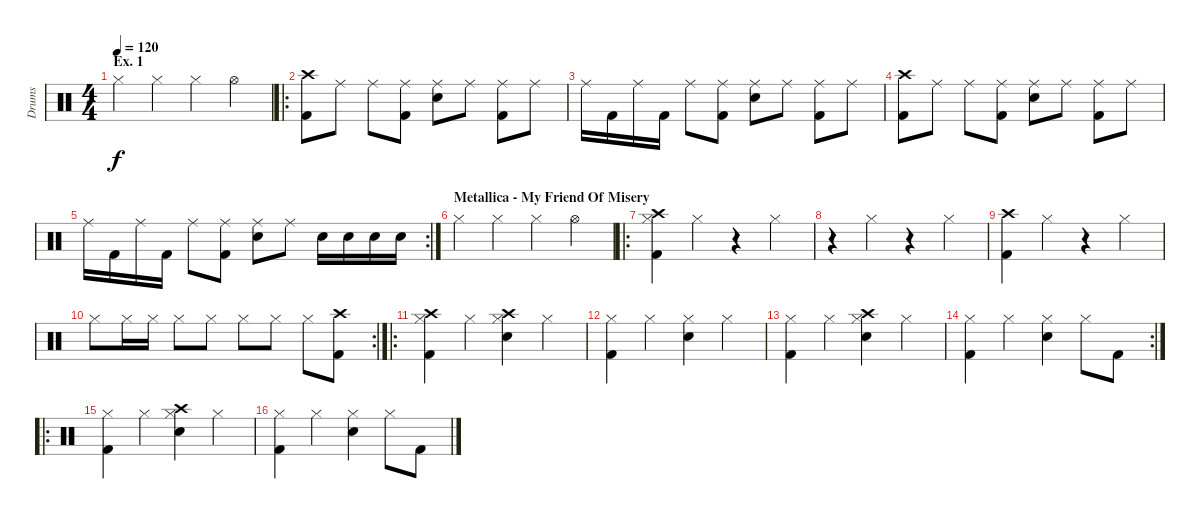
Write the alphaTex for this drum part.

\track ("Drums" "Drums") {instrument percussion}
\staff {score}
\articulation defaults
\ts (4 4)
\section ("" "Ex. 1")
\tempo 120
\clef neutral
\ks c "Hi-Hat (closed)".4{dy f} "Hi-Hat (closed)".4 "Hi-Hat (closed)".4 "Hi-Hat (open)".4
|
\ro
("Crash high (hit)" "Kick (hit) 2").8 "Ride (middle)".8 "Ride (middle)".8 ("Ride (middle)" "Kick (hit) 2").8 ("Ride (middle)" "Snare (hit) 2").8 "Ride (middle)".8 ("Ride (middle)" "Kick (hit) 2").8 "Ride (middle)".8 |
"Ride (middle)".16 "Kick (hit) 2".16 "Ride (middle)".16 "Kick (hit) 2".16 "Ride (middle)".8 ("Ride (middle)" "Kick (hit) 2").8 ("Ride (middle)" "Snare (hit) 2").8 "Ride (middle)".8 ("Ride (middle)" "Kick (hit) 2").8 "Ride (middle)".8 |
("Crash high (hit)" "Kick (hit) 2").8 "Ride (middle)".8 "Ride (middle)".8 ("Ride (middle)" "Kick (hit) 2").8 ("Ride (middle)" "Snare (hit) 2").8 "Ride (middle)".8 ("Ride (middle)" "Kick (hit) 2").8 "Ride (middle)".8 |
\rc 2 "Ride (middle)".16 "Kick (hit) 2".16 "Ride (middle)".16 "Kick (hit) 2".16 "Ride (middle)".8
("Ride (middle)" "Kick (hit) 2").8 ("Ride (middle)" "Snare (hit) 2").8 "Ride (middle)".8 "Snare (hit) 2".16 "Snare (hit) 2".16 "Snare (hit) 2".16 "Snare (hit) 2".16 |
\section ("" "Metallica - My Friend Of Misery")
"Hi-Hat (closed)".4 "Hi-Hat (closed)".4 "Hi-Hat (closed)".4 "Hi-Hat (open)".4 |
\ro
("Crash high (hit)" "Hi-Hat (closed)" "Kick (hit) 2").4 "Hi-Hat (closed)".4 r.4 "Hi-Hat (closed)".4 |
r.4 "Hi-Hat (closed)".4 r.4 "Hi-Hat (closed)".4 |
("Crash high (hit)" "Kick (hit) 2").4 "Hi-Hat (closed)".4 r.4 "Hi-Hat (closed)".4 |
\rc 2 "Hi-Hat (closed)".8 "Hi-Hat (closed)".16 "Hi-Hat (closed)".16 "Hi-Hat (closed)".8 "Hi-Hat (closed)".8 "Hi-Hat (closed)".8 "Hi-Hat (closed)".8 "Hi-Hat (closed)".8
("Crash high (hit)" "Kick (hit) 2").8 |
\ro
("Crash high (hit)" "Hi-Hat (closed)" "Kick (hit) 2").4 "Hi-Hat (closed)".4 ("Crash high (hit)" "Hi-Hat (closed)" "Snare (hit) 2").4 "Hi-Hat (closed)".4 |
("Hi-Hat (closed)" "Kick (hit) 2").4 "Hi-Hat (closed)".4 ("Hi-Hat (closed)" "Snare (hit) 2").4 "Hi-Hat (closed)".4 |
("Hi-Hat (closed)" "Kick (hit) 2").4 "Hi-Hat (closed)".4 ("Crash high (hit)" "Hi-Hat (closed)" "Snare (hit) 2").4 "Hi-Hat (closed)".4 |
\rc 2
("Hi-Hat (closed)" "Kick (hit) 2").4 "Hi-Hat (closed)".4 ("Hi-Hat (closed)" "Snare (hit) 2").4 "Hi-Hat (closed)".8 "Kick (hit) 2".8 |
\ro
("Hi-Hat (closed)" "Kick (hit) 2").4 "Hi-Hat (closed)".4 ("Crash high (hit)" "Hi-Hat (closed)" "Snare (hit) 2").4 "Hi-Hat (closed)".4 |
("Hi-Hat (closed)" "Kick (hit) 2").4 "Hi-Hat (closed)".4 ("Hi-Hat (closed)" "Snare (hit) 2").4 "Hi-Hat (closed)".8 "Kick (hit) 2".8
